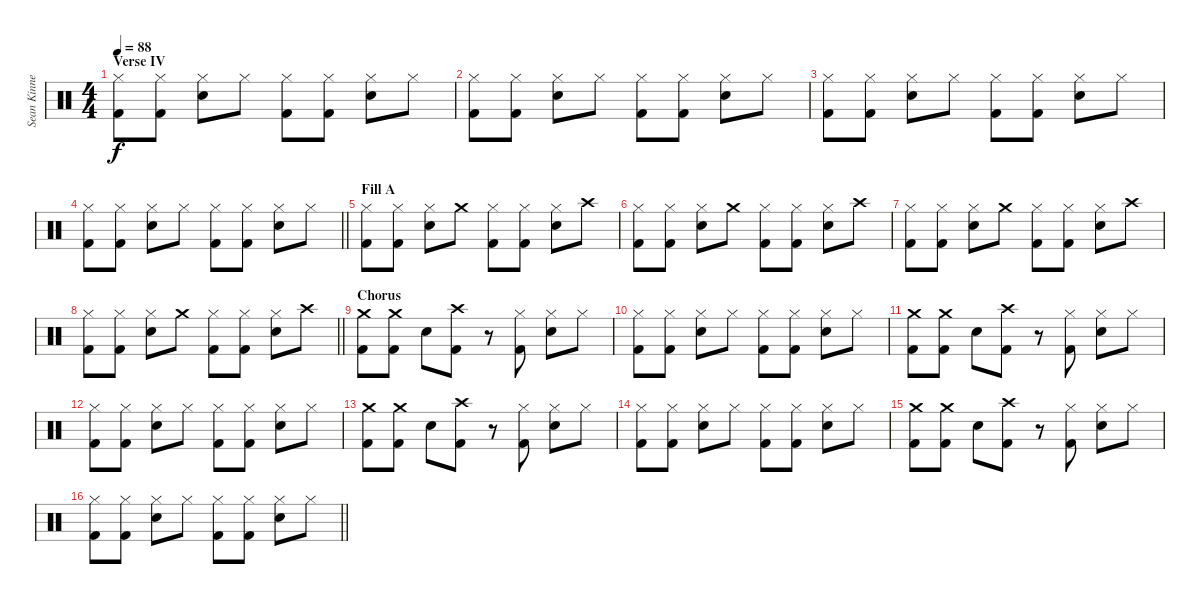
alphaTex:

\track ("Sean Kinney" "Sean Kinne") {instrument percussion}
\staff {score}
\articulation defaults
\ts (4 4)
\section ("" "Verse IV")
\tempo 88
\clef neutral
\ks c
("Hi-Hat (closed)" "Kick (hit) 2").8{dy f} ("Hi-Hat (closed)" "Kick (hit) 2").8 ("Hi-Hat (closed)" "Electric Snare (hit)").8 "Hi-Hat (closed)".8 ("Hi-Hat (closed)" "Kick (hit) 2").8 ("Hi-Hat (closed)" "Kick (hit) 2").8 ("Hi-Hat (closed)" "Electric Snare (hit)").8 "Hi-Hat (closed)".8 |
("Hi-Hat (closed)" "Kick (hit) 2").8 ("Hi-Hat (closed)" "Kick (hit) 2").8 ("Hi-Hat (closed)" "Electric Snare (hit)").8 "Hi-Hat (closed)".8 ("Hi-Hat (closed)" "Kick (hit) 2").8 ("Hi-Hat (closed)" "Kick (hit) 2").8 ("Hi-Hat (closed)" "Electric Snare (hit)").8 "Hi-Hat (closed)".8 |
("Hi-Hat (closed)" "Kick (hit) 2").8 ("Hi-Hat (closed)" "Kick (hit) 2").8 ("Hi-Hat (closed)" "Electric Snare (hit)").8 "Hi-Hat (closed)".8 ("Hi-Hat (closed)" "Kick (hit) 2").8 ("Hi-Hat (closed)" "Kick (hit) 2").8 ("Hi-Hat (closed)" "Electric Snare (hit)").8 "Hi-Hat (closed)".8 |
\barLineRight lightlight
("Hi-Hat (closed)" "Kick (hit) 2").8 ("Hi-Hat (closed)" "Kick (hit) 2").8 ("Hi-Hat (closed)" "Electric Snare (hit)").8 "Hi-Hat (closed)".8 ("Hi-Hat (closed)" "Kick (hit) 2").8 ("Hi-Hat (closed)" "Kick (hit) 2").8 ("Hi-Hat (closed)" "Electric Snare (hit)").8 "Hi-Hat (closed)".8 |
\section ("" "Fill A")
("Hi-Hat (closed)" "Kick (hit) 2").8 ("Hi-Hat (closed)" "Kick (hit) 2").8 ("Hi-Hat (closed)" "Electric Snare (hit)").8 "Crash medium (hit)".8 ("Hi-Hat (closed)" "Kick (hit) 2").8 ("Hi-Hat (closed)" "Kick (hit) 2").8 ("Hi-Hat (closed)" "Electric Snare (hit)").8 "Crash high (hit)".8 |
("Hi-Hat (closed)" "Kick (hit) 2").8 ("Hi-Hat (closed)" "Kick (hit) 2").8 ("Hi-Hat (closed)" "Electric Snare (hit)").8 "Crash medium (hit)".8 ("Hi-Hat (closed)" "Kick (hit) 2").8 ("Hi-Hat (closed)" "Kick (hit) 2").8 ("Hi-Hat (closed)" "Electric Snare (hit)").8 "Crash high (hit)".8 |
("Hi-Hat (closed)" "Kick (hit) 2").8 ("Hi-Hat (closed)" "Kick (hit) 2").8 ("Hi-Hat (closed)" "Electric Snare (hit)").8 "Crash medium (hit)".8 ("Hi-Hat (closed)" "Kick (hit) 2").8 ("Hi-Hat (closed)" "Kick (hit) 2").8 ("Hi-Hat (closed)" "Electric Snare (hit)").8 "Crash high (hit)".8 |
\barLineRight lightlight
("Hi-Hat (closed)" "Kick (hit) 2").8 ("Hi-Hat (closed)" "Kick (hit) 2").8 ("Hi-Hat (closed)" "Electric Snare (hit)").8 "Crash medium (hit)".8 ("Hi-Hat (closed)" "Kick (hit) 2").8 ("Hi-Hat (closed)" "Kick (hit) 2").8 ("Hi-Hat (closed)" "Electric Snare (hit)").8 "Crash high (hit)".8 |
\section ("" "Chorus")
("Crash medium (hit)" "Kick (hit) 2").8 ("Crash medium (hit)" "Kick (hit) 2").8 "Electric Snare (hit)".8 ("Crash high (hit)" "Kick (hit) 2").8 r.8 ("Hi-Hat (closed)" "Kick (hit) 2").8 ("Hi-Hat (closed)" "Electric Snare (hit)").8 "Hi-Hat (closed)".8 |
("Hi-Hat (closed)" "Kick (hit) 2").8 ("Hi-Hat (closed)" "Kick (hit) 2").8 ("Hi-Hat (closed)" "Electric Snare (hit)").8 "Hi-Hat (closed)".8 ("Hi-Hat (closed)" "Kick (hit) 2").8 ("Hi-Hat (closed)" "Kick (hit) 2").8 ("Hi-Hat (closed)" "Electric Snare (hit)").8 "Hi-Hat (closed)".8 |
("Crash medium (hit)" "Kick (hit) 2").8 ("Crash medium (hit)" "Kick (hit) 2").8 "Electric Snare (hit)".8 ("Crash high (hit)" "Kick (hit) 2").8 r.8 ("Hi-Hat (closed)" "Kick (hit) 2").8 ("Hi-Hat (closed)" "Electric Snare (hit)").8 "Hi-Hat (closed)".8 |
("Hi-Hat (closed)" "Kick (hit) 2").8 ("Hi-Hat (closed)" "Kick (hit) 2").8 ("Hi-Hat (closed)" "Electric Snare (hit)").8 "Hi-Hat (closed)".8 ("Hi-Hat (closed)" "Kick (hit) 2").8 ("Hi-Hat (closed)" "Kick (hit) 2").8 ("Hi-Hat (closed)" "Electric Snare (hit)").8 "Hi-Hat (closed)".8 |
("Crash medium (hit)" "Kick (hit) 2").8 ("Crash medium (hit)" "Kick (hit) 2").8 "Electric Snare (hit)".8 ("Crash high (hit)" "Kick (hit) 2").8 r.8 ("Hi-Hat (closed)" "Kick (hit) 2").8 ("Hi-Hat (closed)" "Electric Snare (hit)").8 "Hi-Hat (closed)".8 |
("Hi-Hat (closed)" "Kick (hit) 2").8 ("Hi-Hat (closed)" "Kick (hit) 2").8 ("Hi-Hat (closed)" "Electric Snare (hit)").8 "Hi-Hat (closed)".8 ("Hi-Hat (closed)" "Kick (hit) 2").8 ("Hi-Hat (closed)" "Kick (hit) 2").8 ("Hi-Hat (closed)" "Electric Snare (hit)").8 "Hi-Hat (closed)".8 |
("Crash medium (hit)" "Kick (hit) 2").8 ("Crash medium (hit)" "Kick (hit) 2").8 "Electric Snare (hit)".8 ("Crash high (hit)" "Kick (hit) 2").8 r.8 ("Hi-Hat (closed)" "Kick (hit) 2").8 ("Hi-Hat (closed)" "Electric Snare (hit)").8 "Hi-Hat (closed)".8 |
\barLineRight lightlight
("Hi-Hat (closed)" "Kick (hit) 2").8 ("Hi-Hat (closed)" "Kick (hit) 2").8 ("Hi-Hat (closed)" "Electric Snare (hit)").8 "Hi-Hat (closed)".8 ("Hi-Hat (closed)" "Kick (hit) 2").8 ("Hi-Hat (closed)" "Kick (hit) 2").8 ("Hi-Hat (closed)" "Electric Snare (hit)").8 "Hi-Hat (closed)".8
